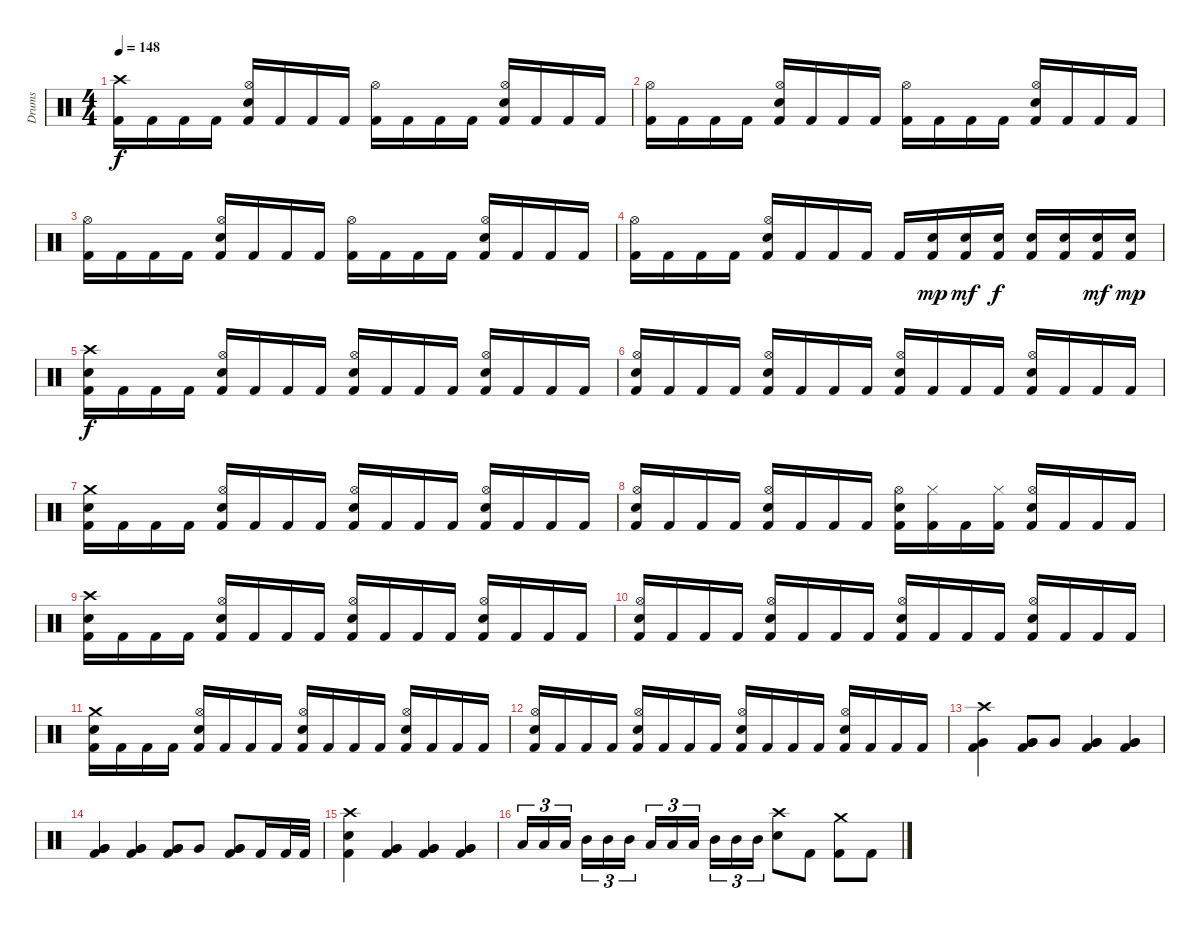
\track ("Drums" "Drums") {instrument percussion}
\staff {score}
\articulation defaults
\ts (4 4)
\tempo 148
\clef neutral
\ks c
("Crash high (hit)" "Kick (hit) 2").16{dy f} "Kick (hit) 2".16 "Kick (hit) 2".16 "Kick (hit) 2".16 ("Hi-Hat (open)" "Electric Snare (hit)" "Kick (hit) 2").16 "Kick (hit) 2".16 "Kick (hit) 2".16 "Kick (hit) 2".16 ("Hi-Hat (open)" "Kick (hit) 2").16 "Kick (hit) 2".16 "Kick (hit) 2".16 "Kick (hit) 2".16 ("Hi-Hat (open)" "Electric Snare (hit)" "Kick (hit) 2").16 "Kick (hit) 2".16 "Kick (hit) 2".16 "Kick (hit) 2".16 |
("Hi-Hat (open)" "Kick (hit) 2").16 "Kick (hit) 2".16 "Kick (hit) 2".16 "Kick (hit) 2".16 ("Hi-Hat (open)" "Electric Snare (hit)" "Kick (hit) 2").16 "Kick (hit) 2".16 "Kick (hit) 2".16 "Kick (hit) 2".16 ("Hi-Hat (open)" "Kick (hit) 2").16 "Kick (hit) 2".16 "Kick (hit) 2".16 "Kick (hit) 2".16 ("Hi-Hat (open)" "Electric Snare (hit)" "Kick (hit) 2").16 "Kick (hit) 2".16 "Kick (hit) 2".16 "Kick (hit) 2".16 |
("Hi-Hat (open)" "Kick (hit) 2").16 "Kick (hit) 2".16 "Kick (hit) 2".16 "Kick (hit) 2".16 ("Hi-Hat (open)" "Electric Snare (hit)" "Kick (hit) 2").16 "Kick (hit) 2".16 "Kick (hit) 2".16 "Kick (hit) 2".16 ("Hi-Hat (open)" "Kick (hit) 2").16 "Kick (hit) 2".16 "Kick (hit) 2".16 "Kick (hit) 2".16 ("Hi-Hat (open)" "Electric Snare (hit)" "Kick (hit) 2").16 "Kick (hit) 2".16 "Kick (hit) 2".16 "Kick (hit) 2".16 |
("Hi-Hat (open)" "Kick (hit) 2").16 "Kick (hit) 2".16 "Kick (hit) 2".16 "Kick (hit) 2".16 ("Hi-Hat (open)" "Electric Snare (hit)" "Kick (hit) 2").16 "Kick (hit) 2".16 "Kick (hit) 2".16 "Kick (hit) 2".16 "Kick (hit) 2".16 ("Electric Snare (hit)" "Kick (hit) 2").16{dy mp} ("Electric Snare (hit)" "Kick (hit) 2").16{dy mf} ("Electric Snare (hit)" "Kick (hit) 2").16{dy f} ("Electric Snare (hit)" "Kick (hit) 2").16 ("Electric Snare (hit)" "Kick (hit) 2").16 ("Electric Snare (hit)" "Kick (hit) 2").16{dy mf} ("Electric Snare (hit)" "Kick (hit) 2").16{dy mp} |
("Crash high (hit)" "Electric Snare (hit)" "Kick (hit) 2").16{dy f} "Kick (hit) 2".16 "Kick (hit) 2".16 "Kick (hit) 2".16 ("Hi-Hat (open)" "Electric Snare (hit)" "Kick (hit) 2").16 "Kick (hit) 2".16 "Kick (hit) 2".16 "Kick (hit) 2".16 ("Hi-Hat (open)" "Electric Snare (hit)" "Kick (hit) 2").16 "Kick (hit) 2".16 "Kick (hit) 2".16 "Kick (hit) 2".16 ("Hi-Hat (open)" "Electric Snare (hit)" "Kick (hit) 2").16 "Kick (hit) 2".16 "Kick (hit) 2".16 "Kick (hit) 2".16 |
("Hi-Hat (open)" "Electric Snare (hit)" "Kick (hit) 2").16 "Kick (hit) 2".16 "Kick (hit) 2".16 "Kick (hit) 2".16 ("Hi-Hat (open)" "Electric Snare (hit)" "Kick (hit) 2").16 "Kick (hit) 2".16 "Kick (hit) 2".16 "Kick (hit) 2".16 ("Hi-Hat (open)" "Electric Snare (hit)" "Kick (hit) 2").16 "Kick (hit) 2".16 "Kick (hit) 2".16 "Kick (hit) 2".16 ("Hi-Hat (open)" "Electric Snare (hit)" "Kick (hit) 2").16 "Kick (hit) 2".16 "Kick (hit) 2".16 "Kick (hit) 2".16 |
("Crash medium (hit)" "Electric Snare (hit)" "Kick (hit) 2").16 "Kick (hit) 2".16 "Kick (hit) 2".16 "Kick (hit) 2".16 ("Hi-Hat (open)" "Electric Snare (hit)" "Kick (hit) 2").16 "Kick (hit) 2".16 "Kick (hit) 2".16 "Kick (hit) 2".16 ("Hi-Hat (open)" "Electric Snare (hit)" "Kick (hit) 2").16 "Kick (hit) 2".16 "Kick (hit) 2".16 "Kick (hit) 2".16 ("Hi-Hat (open)" "Electric Snare (hit)" "Kick (hit) 2").16 "Kick (hit) 2".16 "Kick (hit) 2".16 "Kick (hit) 2".16 |
("Hi-Hat (open)" "Electric Snare (hit)" "Kick (hit) 2").16 "Kick (hit) 2".16 "Kick (hit) 2".16 "Kick (hit) 2".16 ("Hi-Hat (open)" "Electric Snare (hit)" "Kick (hit) 2").16 "Kick (hit) 2".16 "Kick (hit) 2".16 "Kick (hit) 2".16 ("Hi-Hat (open)" "Electric Snare (hit)" "Kick (hit) 2").16 ("Hi-Hat (closed)" "Kick (hit) 2").16 "Kick (hit) 2".16 ("Hi-Hat (closed)" "Kick (hit) 2").16 ("Hi-Hat (open)" "Electric Snare (hit)" "Kick (hit) 2").16 "Kick (hit) 2".16 "Kick (hit) 2".16 "Kick (hit) 2".16 |
("Crash high (hit)" "Electric Snare (hit)" "Kick (hit) 2").16 "Kick (hit) 2".16 "Kick (hit) 2".16 "Kick (hit) 2".16 ("Hi-Hat (open)" "Electric Snare (hit)" "Kick (hit) 2").16 "Kick (hit) 2".16 "Kick (hit) 2".16 "Kick (hit) 2".16 ("Hi-Hat (open)" "Electric Snare (hit)" "Kick (hit) 2").16 "Kick (hit) 2".16 "Kick (hit) 2".16 "Kick (hit) 2".16 ("Hi-Hat (open)" "Electric Snare (hit)" "Kick (hit) 2").16 "Kick (hit) 2".16 "Kick (hit) 2".16 "Kick (hit) 2".16 |
("Hi-Hat (open)" "Electric Snare (hit)" "Kick (hit) 2").16 "Kick (hit) 2".16 "Kick (hit) 2".16 "Kick (hit) 2".16 ("Hi-Hat (open)" "Electric Snare (hit)" "Kick (hit) 2").16 "Kick (hit) 2".16 "Kick (hit) 2".16 "Kick (hit) 2".16 ("Hi-Hat (open)" "Electric Snare (hit)" "Kick (hit) 2").16 "Kick (hit) 2".16 "Kick (hit) 2".16 "Kick (hit) 2".16 ("Hi-Hat (open)" "Electric Snare (hit)" "Kick (hit) 2").16 "Kick (hit) 2".16 "Kick (hit) 2".16 "Kick (hit) 2".16 |
("Crash medium (hit)" "Electric Snare (hit)" "Kick (hit) 2").16 "Kick (hit) 2".16 "Kick (hit) 2".16 "Kick (hit) 2".16 ("Hi-Hat (open)" "Electric Snare (hit)" "Kick (hit) 2").16 "Kick (hit) 2".16 "Kick (hit) 2".16 "Kick (hit) 2".16 ("Hi-Hat (open)" "Electric Snare (hit)" "Kick (hit) 2").16 "Kick (hit) 2".16 "Kick (hit) 2".16 "Kick (hit) 2".16 ("Hi-Hat (open)" "Electric Snare (hit)" "Kick (hit) 2").16 "Kick (hit) 2".16 "Kick (hit) 2".16 "Kick (hit) 2".16 |
("Hi-Hat (open)" "Electric Snare (hit)" "Kick (hit) 2").16 "Kick (hit) 2".16 "Kick (hit) 2".16 "Kick (hit) 2".16 ("Hi-Hat (open)" "Electric Snare (hit)" "Kick (hit) 2").16 "Kick (hit) 2".16 "Kick (hit) 2".16 "Kick (hit) 2".16 ("Hi-Hat (open)" "Electric Snare (hit)" "Kick (hit) 2").16 "Kick (hit) 2".16 "Kick (hit) 2".16 "Kick (hit) 2".16 ("Hi-Hat (open)" "Electric Snare (hit)" "Kick (hit) 2").16 "Kick (hit) 2".16 "Kick (hit) 2".16 "Kick (hit) 2".16 |
("Crash high (hit)" "Very Low Tom (hit)" "Kick (hit) 2").4 ("Very Low Tom (hit)" "Very Low Tom (hit)" "Kick (hit) 2").8 "Very Low Tom (hit)".8 ("Very Low Tom (hit)" "Very Low Tom (hit)" "Kick (hit) 2").4 ("Very Low Tom (hit)" "Very Low Tom (hit)" "Kick (hit) 2").4 |
("Very Low Tom (hit)" "Very Low Tom (hit)" "Kick (hit) 2").4 ("Very Low Tom (hit)" "Very Low Tom (hit)" "Kick (hit) 2").4 ("Very Low Tom (hit)" "Very Low Tom (hit)" "Kick (hit) 2").8 "Very Low Tom (hit)".8 ("Very Low Tom (hit)" "Very Low Tom (hit)" "Kick (hit) 2").8 "Kick (hit) 2".16 "Kick (hit) 2".32 "Kick (hit) 2".32 |
("Crash high (hit)" "Electric Snare (hit)" "Kick (hit) 2").4 ("Very Low Tom (hit)" "Very Low Tom (hit)" "Kick (hit) 2").4 ("Very Low Tom (hit)" "Very Low Tom (hit)" "Kick (hit) 2").4 ("Very Low Tom (hit)" "Very Low Tom (hit)" "Kick (hit) 2").4 |
"Low Tom (hit)".16{tu (3 2)} "Low Tom (hit)".16{tu (3 2)} "Low Tom (hit)".16{tu (3 2) beam splitsecondary} "Mid Tom (hit)".16{tu (3 2)} "Mid Tom (hit)".16{tu (3 2)} "Mid Tom (hit)".16{tu (3 2)} "Low Tom (hit)".16{tu (3 2)} "Low Tom (hit)".16{tu (3 2)} "Low Tom (hit)".16{tu (3 2) beam splitsecondary} "Mid Tom (hit)".16{tu (3 2)} "Mid Tom (hit)".16{tu (3 2)} "Mid Tom (hit)".16{tu (3 2)} ("Crash high (hit)" "Electric Snare (hit)").8 "Kick (hit) 2".8 ("Crash medium (hit)" "Kick (hit) 2").8 "Kick (hit) 2".8
